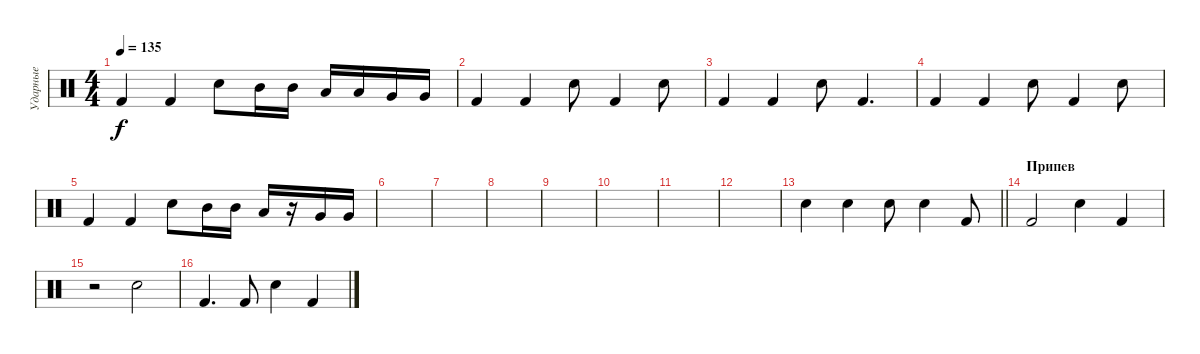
\track ("Ударные" "Ударные") {instrument percussion}
\staff {score}
\articulation defaults
\ts (4 4)
\tempo 135
\clef neutral
\ks c "Kick (hit) 2".4{dy f} "Kick (hit) 2".4 "Snare (hit) 2".8 "Mid Tom (hit)".16 "Mid Tom (hit)".16 "Low Tom (hit)".16 "Low Tom (hit)".16 "Very Low Tom (hit)".16 "Very Low Tom (hit)".16
|
"Kick (hit) 2".4 "Kick (hit) 2".4 "Snare (hit) 2".8 "Kick (hit) 2".4 "Snare (hit) 2".8 |
"Kick (hit) 2".4 "Kick (hit) 2".4 "Snare (hit) 2".8 "Kick (hit) 2".4{d} |
"Kick (hit) 2".4 "Kick (hit) 2".4 "Snare (hit) 2".8 "Kick (hit) 2".4 "Snare (hit) 2".8 |
"Kick (hit) 2".4 "Kick (hit) 2".4 "Snare (hit) 2".8 "Mid Tom (hit)".16 "Mid Tom (hit)".16 "Low Tom (hit)".16 r.16 "Very Low Tom (hit)".16 "Very Low Tom (hit)".16 |
|
|
|
|
|
|
|
\barLineRight lightlight "Snare (hit) 2".4 "Snare (hit) 2".4 "Snare (hit) 2".8 "Snare (hit) 2".4 "Kick (hit) 2".8
|
\section ("" "Припев")
"Kick (hit) 2".2 "Snare (hit) 2".4 "Kick (hit) 2".4 |
r.2 "Snare (hit) 2".2 |
"Kick (hit) 2".4{d} "Kick (hit) 2".8 "Snare (hit) 2".4 "Kick (hit) 2".4
